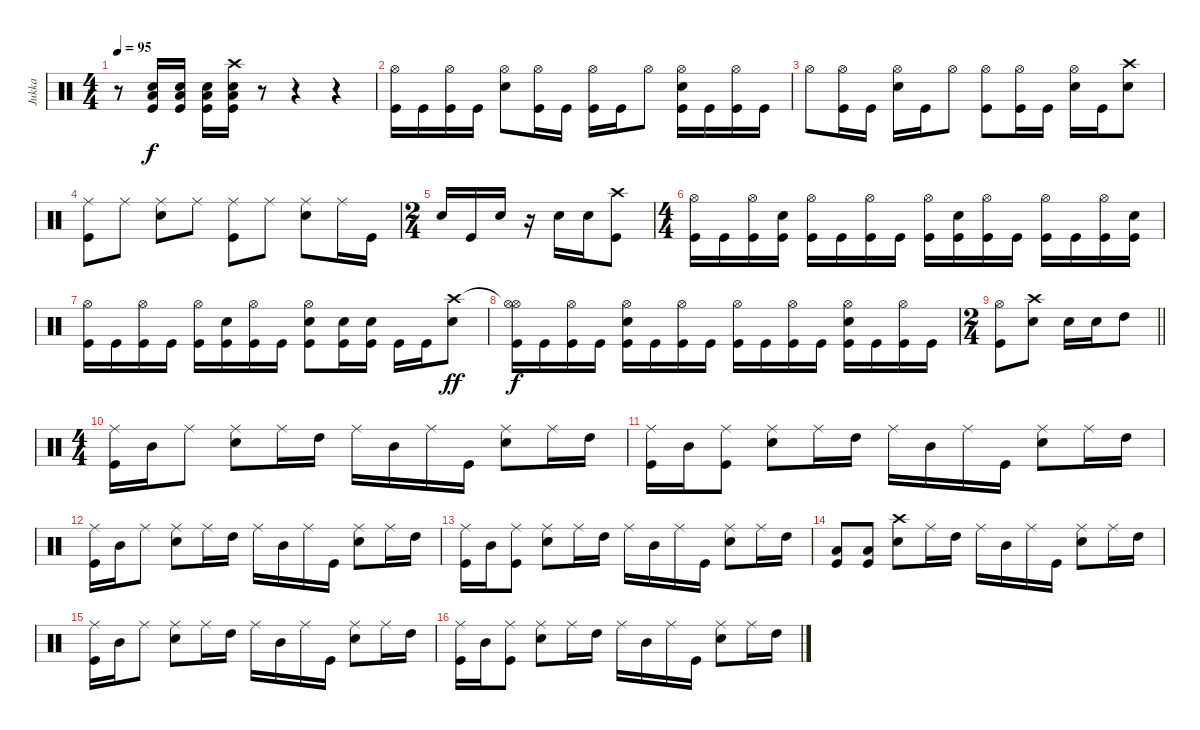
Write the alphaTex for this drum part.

\track ("Jukka" "Jukka") {instrument percussion}
\staff {score}
\articulation defaults
\ts (4 4)
\tempo 95
\clef neutral
\ks c
r.8{dy f} ("Low Floor Tom (hit)" "Electric Snare (hit)" "Kick (hit)").16 ("Low Floor Tom (hit)" "Electric Snare (hit)" "Kick (hit)").16 ("Low Floor Tom (hit)" "Electric Snare (hit)" "Kick (hit)").16 ("Crash high (hit)" "Low Floor Tom (hit)" "Electric Snare (hit)" "Kick (hit)").16 r.8 r.4 r.4 |
("Hi-Hat (open)" "Kick (hit)").16 "Kick (hit)".16 ("Hi-Hat (open)" "Kick (hit)").16 "Kick (hit)".16 ("Hi-Hat (open)" "Electric Snare (hit)").8 ("Hi-Hat (open)" "Kick (hit)").16 "Kick (hit)".16 ("Hi-Hat (open)" "Kick (hit)").16 "Kick (hit)".16 "Hi-Hat (open)".8 ("Hi-Hat (open)" "Electric Snare (hit)" "Kick (hit)").16 "Kick (hit)".16 ("Hi-Hat (open)" "Kick (hit)").16 "Kick (hit)".16 |
"Hi-Hat (open)".8 ("Hi-Hat (open)" "Kick (hit)").16 "Kick (hit)".16 ("Hi-Hat (open)" "Electric Snare (hit)").16 "Kick (hit)".16 "Hi-Hat (open)".8 ("Hi-Hat (open)" "Kick (hit)").8 ("Hi-Hat (open)" "Kick (hit)").16 "Kick (hit)".16 ("Hi-Hat (open)" "Electric Snare (hit)").16 "Kick (hit)".16 ("Crash high (hit)" "Electric Snare (hit)").8 |
("Ride (middle)" "Kick (hit)").8 "Ride (middle)".8 ("Ride (middle)" "Electric Snare (hit)").8 "Ride (middle)".8 ("Ride (middle)" "Kick (hit)").8 "Ride (middle)".8 ("Ride (middle)" "Electric Snare (hit)").8 "Ride (middle)".16 "Kick (hit)".16 |
\ts (2 4)
"Electric Snare (hit)".16 "Kick (hit)".16 "Electric Snare (hit)".16 r.16 "Electric Snare (hit)".16 "Electric Snare (hit)".16 ("Crash high (hit)" "Kick (hit)").8 |
\ts (4 4)
("Hi-Hat (open)" "Kick (hit)").16 "Kick (hit)".16 ("Hi-Hat (open)" "Kick (hit)").16 ("Electric Snare (hit)" "Kick (hit)").16 ("Hi-Hat (open)" "Kick (hit)").16 "Kick (hit)".16 ("Hi-Hat (open)" "Kick (hit)").16 "Kick (hit)".16 ("Hi-Hat (open)" "Kick (hit)").16 ("Electric Snare (hit)" "Kick (hit)").16 ("Hi-Hat (open)" "Kick (hit)").16 "Kick (hit)".16 ("Hi-Hat (open)" "Kick (hit)").16 "Kick (hit)".16 ("Hi-Hat (open)" "Kick (hit)").16 ("Electric Snare (hit)" "Kick (hit)").16 |
("Hi-Hat (open)" "Kick (hit)").16 "Kick (hit)".16 ("Hi-Hat (open)" "Kick (hit)").16 "Kick (hit)".16 ("Hi-Hat (open)" "Kick (hit)").16 ("Electric Snare (hit)" "Kick (hit)").16 ("Hi-Hat (open)" "Kick (hit)").16 "Kick (hit)".16 ("Hi-Hat (open)" "Electric Snare (hit)" "Kick (hit)").8 ("Electric Snare (hit)" "Kick (hit)").16 ("Electric Snare (hit)" "Kick (hit)").16 "Kick (hit)".16 "Kick (hit)".16 ("Crash high (hit)" "Electric Snare (hit)").8{dy ff} |
("Hi-Hat (open)"{t} "Hi-Hat (open)" "Kick (hit)").16{dy f} "Kick (hit)".16 ("Hi-Hat (open)" "Kick (hit)").16 "Kick (hit)".16 ("Hi-Hat (open)" "Electric Snare (hit)" "Kick (hit)").16 "Kick (hit)".16 ("Hi-Hat (open)" "Kick (hit)").16 "Kick (hit)".16 ("Hi-Hat (open)" "Kick (hit)").16 "Kick (hit)".16 ("Hi-Hat (open)" "Kick (hit)").16 "Kick (hit)".16 ("Hi-Hat (open)" "Electric Snare (hit)" "Kick (hit)").16 "Kick (hit)".16 ("Hi-Hat (open)" "Kick (hit)").16 "Kick (hit)".16 |
\ts (2 4)
\barLineRight lightlight
("Hi-Hat (open)" "Kick (hit)").8 ("Crash high (hit)" "Electric Snare (hit)").8 "Electric Snare (hit)".16 "Electric Snare (hit)".16 "High Tom (hit)".8 |
\ts (4 4)
("Ride (middle)" "Kick (hit)").16 "Mid Tom (hit)".16 "Ride (middle)".8 ("Ride (middle)" "Electric Snare (hit)").8 "Ride (middle)".16 "High Tom (hit)".16 "Ride (middle)".16 "Mid Tom (hit)".16 "Ride (middle)".16 "Kick (hit)".16 ("Ride (middle)" "Electric Snare (hit)").8 "Ride (middle)".16 "High Tom (hit)".16 |
("Ride (middle)" "Kick (hit)").16 "Mid Tom (hit)".16 ("Ride (middle)" "Kick (hit)").8 ("Ride (middle)" "Electric Snare (hit)").8 "Ride (middle)".16 "High Tom (hit)".16 "Ride (middle)".16 "Mid Tom (hit)".16 "Ride (middle)".16 "Kick (hit)".16 ("Ride (middle)" "Electric Snare (hit)").8 "Ride (middle)".16 "High Tom (hit)".16 |
("Ride (middle)" "Kick (hit)").16 "Mid Tom (hit)".16 "Ride (middle)".8 ("Ride (middle)" "Electric Snare (hit)").8 "Ride (middle)".16 "High Tom (hit)".16 "Ride (middle)".16 "Mid Tom (hit)".16 "Ride (middle)".16 "Kick (hit)".16 ("Ride (middle)" "Electric Snare (hit)").8 "Ride (middle)".16 "High Tom (hit)".16 |
("Ride (middle)" "Kick (hit)").16 "Mid Tom (hit)".16 ("Ride (middle)" "Kick (hit)").8 ("Ride (middle)" "Electric Snare (hit)").8 "Ride (middle)".16 "High Tom (hit)".16 "Ride (middle)".16 "Mid Tom (hit)".16 "Ride (middle)".16 "Kick (hit)".16 ("Ride (middle)" "Electric Snare (hit)").8 "Ride (middle)".16 "High Tom (hit)".16 |
("Low Floor Tom (hit)" "Kick (hit)").8 ("Low Floor Tom (hit)" "Kick (hit)").8 ("Crash high (hit)" "Electric Snare (hit)").8 "Ride (middle)".16 "High Tom (hit)".16 "Ride (middle)".16 "Mid Tom (hit)".16 "Ride (middle)".16 "Kick (hit)".16 ("Ride (middle)" "Electric Snare (hit)").8 "Ride (middle)".16 "High Tom (hit)".16 |
("Ride (middle)" "Kick (hit)").16 "Mid Tom (hit)".16 "Ride (middle)".8 ("Ride (middle)" "Electric Snare (hit)").8 "Ride (middle)".16 "High Tom (hit)".16 "Ride (middle)".16 "Mid Tom (hit)".16 "Ride (middle)".16 "Kick (hit)".16 ("Ride (middle)" "Electric Snare (hit)").8 "Ride (middle)".16 "High Tom (hit)".16 |
("Ride (middle)" "Kick (hit)").16 "Mid Tom (hit)".16 ("Ride (middle)" "Kick (hit)").8 ("Ride (middle)" "Electric Snare (hit)").8 "Ride (middle)".16 "High Tom (hit)".16 "Ride (middle)".16 "Mid Tom (hit)".16 "Ride (middle)".16 "Kick (hit)".16 ("Ride (middle)" "Electric Snare (hit)").8 "Ride (middle)".16 "High Tom (hit)".16
